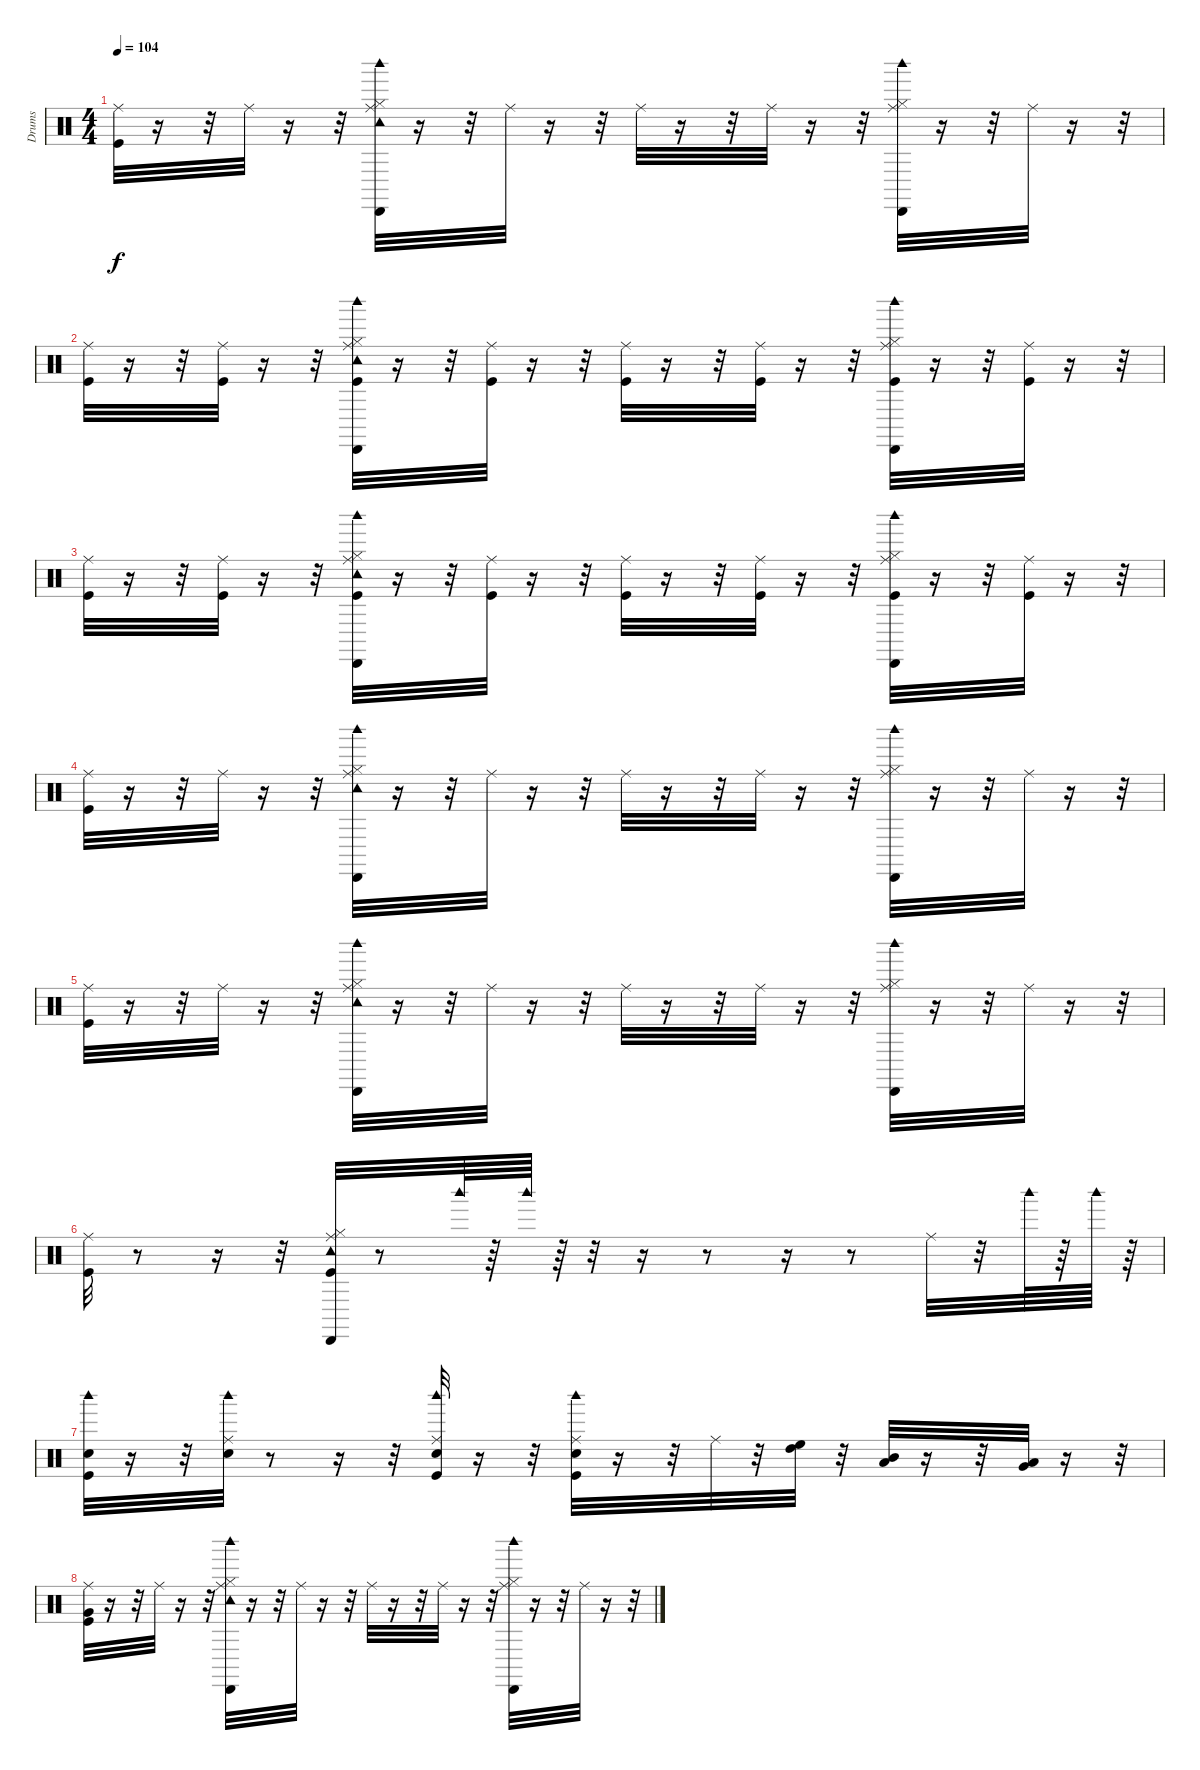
\track ("Drums" "Drums") {instrument percussion}
\staff {score}
\articulation defaults
\ts (4 4)
\tempo 104
\clef neutral
\ks c
("Kick (hit)" "Ride (middle)").32{dy f} r.16 r.32 "Ride (middle)".32 r.16 r.32 ("Hi-Hat (closed)" "Ride (middle)" "Tambourine (hit)" "Cabasa (hit)" "Woodblock high (hit)").32 r.16 r.32 "Ride (middle)".32 r.16 r.32 "Ride (middle)".32 r.16 r.32 "Ride (middle)".32 r.16 r.32 ("Hi-Hat (closed)" "Ride (middle)" "Cabasa (hit)" "Woodblock high (hit)").32 r.16 r.32 "Ride (middle)".32 r.16 r.32 |
("Kick (hit)" "Ride (middle)").32 r.16 r.32 ("Kick (hit)" "Ride (middle)").32 r.16 r.32 ("Kick (hit)" "Hi-Hat (closed)" "Ride (middle)" "Tambourine (hit)" "Cabasa (hit)" "Woodblock high (hit)").32 r.16 r.32 ("Kick (hit)" "Ride (middle)").32 r.16 r.32 ("Kick (hit)" "Ride (middle)").32 r.16 r.32 ("Kick (hit)" "Ride (middle)").32 r.16 r.32 ("Kick (hit)" "Hi-Hat (closed)" "Ride (middle)" "Cabasa (hit)" "Woodblock high (hit)").32 r.16 r.32 ("Kick (hit)" "Ride (middle)").32 r.16 r.32 |
("Kick (hit)" "Ride (middle)").32 r.16 r.32 ("Kick (hit)" "Ride (middle)").32 r.16 r.32 ("Kick (hit)" "Hi-Hat (closed)" "Ride (middle)" "Tambourine (hit)" "Cabasa (hit)" "Woodblock high (hit)").32 r.16 r.32 ("Kick (hit)" "Ride (middle)").32 r.16 r.32 ("Kick (hit)" "Ride (middle)").32 r.16 r.32 ("Kick (hit)" "Ride (middle)").32 r.16 r.32 ("Kick (hit)" "Hi-Hat (closed)" "Ride (middle)" "Cabasa (hit)" "Woodblock high (hit)").32 r.16 r.32 ("Kick (hit)" "Ride (middle)").32 r.16 r.32 |
("Kick (hit)" "Ride (middle)").32 r.16 r.32 "Ride (middle)".32 r.16 r.32 ("Hi-Hat (closed)" "Ride (middle)" "Tambourine (hit)" "Cabasa (hit)" "Woodblock high (hit)").32 r.16 r.32 "Ride (middle)".32 r.16 r.32 "Ride (middle)".32 r.16 r.32 "Ride (middle)".32 r.16 r.32 ("Hi-Hat (closed)" "Ride (middle)" "Cabasa (hit)" "Woodblock high (hit)").32 r.16 r.32 "Ride (middle)".32 r.16 r.32 |
("Kick (hit)" "Ride (middle)").32 r.16 r.32 "Ride (middle)".32 r.16 r.32 ("Hi-Hat (closed)" "Ride (middle)" "Tambourine (hit)" "Cabasa (hit)" "Woodblock high (hit)").32 r.16 r.32 "Ride (middle)".32 r.16 r.32 "Ride (middle)".32 r.16 r.32 "Ride (middle)".32 r.16 r.32 ("Hi-Hat (closed)" "Ride (middle)" "Cabasa (hit)" "Woodblock high (hit)").32 r.16 r.32 "Ride (middle)".32 r.16 r.32 |
("Kick (hit)" "Ride (middle)").32 r.8 r.16 r.32 ("Kick (hit)" "Hi-Hat (closed)" "Ride (middle)" "Tambourine (hit)" "Cabasa (hit)").32 r.8 "Woodblock high (hit)".64 r.64 "Woodblock high (hit)".64 r.64 r.32 r.16 r.8 r.16 r.8 "Ride (middle)".32 r.32 "Woodblock high (hit)".64 r.64 "Woodblock high (hit)".64 r.64 |
("Kick (hit)" "Snare (hit) 2" "Woodblock high (hit)").32 r.16 r.32 ("Snare (hit) 2" "Ride (middle)" "Woodblock high (hit)").32 r.8 r.16 r.32 ("Kick (hit)" "Snare (hit) 2" "Ride (middle)" "Woodblock high (hit)").32 r.16 r.32 ("Kick (hit)" "Snare (hit) 2" "Ride (middle)" "Woodblock high (hit)").32 r.16 r.32 "Ride (middle)".32 r.32 ("High Tom (hit)" "High Floor Tom (hit)").32 r.32 ("Low Tom (hit)" "Mid Tom (hit)").32 r.16 r.32 ("Low Floor Tom (hit)" "Very Low Tom (hit)").32 r.16 r.32 |
("Kick (hit)" "Very Low Tom (hit)" "Ride (middle)").32 r.16 r.32 "Ride (middle)".32 r.16 r.32 ("Hi-Hat (closed)" "Ride (middle)" "Tambourine (hit)" "Cabasa (hit)" "Woodblock high (hit)").32 r.16 r.32 "Ride (middle)".32 r.16 r.32 "Ride (middle)".32 r.16 r.32 "Ride (middle)".32 r.16 r.32 ("Hi-Hat (closed)" "Ride (middle)" "Cabasa (hit)" "Woodblock high (hit)").32 r.16 r.32 "Ride (middle)".32 r.16 r.32
